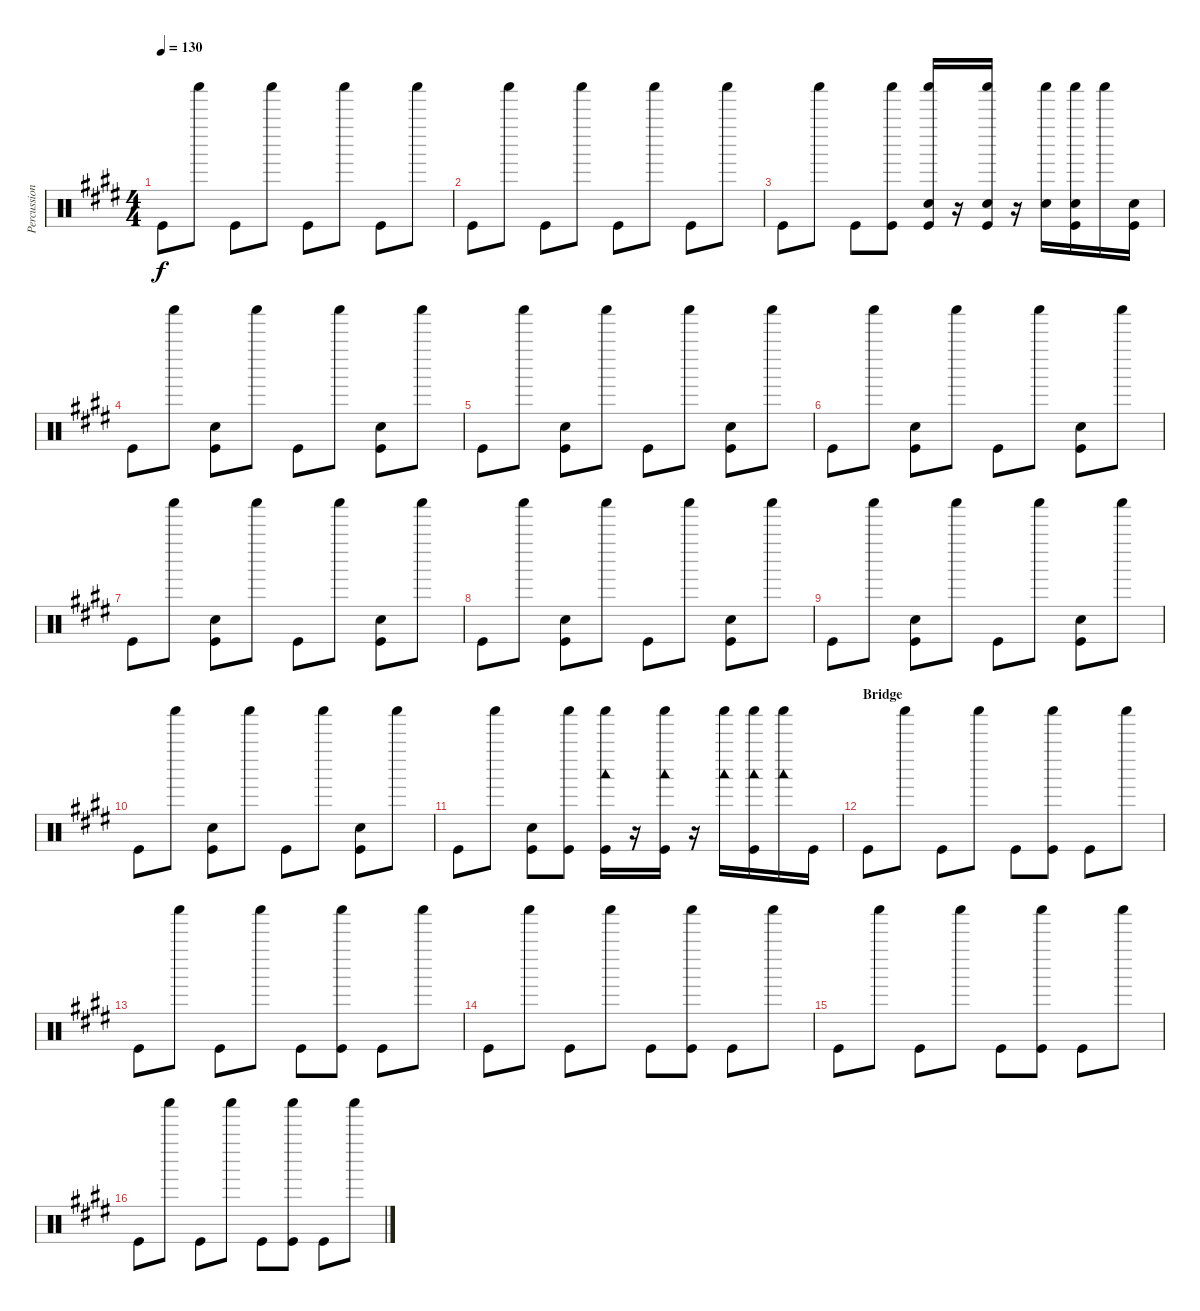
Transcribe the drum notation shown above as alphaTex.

\track ("Percussion" "Percussion") {instrument percussion}
\staff {score}
\articulation defaults
\ts (4 4)
\tempo 130
\clef neutral
\ks e "Kick (hit)".8{dy f} "Shaker (hit)".8 "Kick (hit)".8 "Shaker (hit)".8 "Kick (hit)".8 "Shaker (hit)".8 "Kick (hit)".8 "Shaker (hit)".8
|
"Kick (hit)".8 "Shaker (hit)".8 "Kick (hit)".8 "Shaker (hit)".8 "Kick (hit)".8 "Shaker (hit)".8 "Kick (hit)".8 "Shaker (hit)".8 |
"Kick (hit)".8 "Shaker (hit)".8 "Kick (hit)".8 ("Shaker (hit)" "Kick (hit)").8 ("Shaker (hit)" "Electric Snare (hit)" "Kick (hit)").16 r.16 ("Shaker (hit)" "Electric Snare (hit)" "Kick (hit)").16 r.16 ("Shaker (hit)" "Electric Snare (hit)").16 ("Shaker (hit)" "Electric Snare (hit)" "Kick (hit)").16 "Shaker (hit)".16 ("Electric Snare (hit)" "Kick (hit)").16 |
"Kick (hit)".8 "Shaker (hit)".8 ("Electric Snare (hit)" "Kick (hit)").8 "Shaker (hit)".8 "Kick (hit)".8 "Shaker (hit)".8 ("Electric Snare (hit)" "Kick (hit)").8 "Shaker (hit)".8 |
"Kick (hit)".8 "Shaker (hit)".8 ("Electric Snare (hit)" "Kick (hit)").8 "Shaker (hit)".8 "Kick (hit)".8 "Shaker (hit)".8 ("Electric Snare (hit)" "Kick (hit)").8 "Shaker (hit)".8 |
"Kick (hit)".8 "Shaker (hit)".8 ("Electric Snare (hit)" "Kick (hit)").8 "Shaker (hit)".8 "Kick (hit)".8 "Shaker (hit)".8 ("Electric Snare (hit)" "Kick (hit)").8 "Shaker (hit)".8 |
"Kick (hit)".8 "Shaker (hit)".8 ("Electric Snare (hit)" "Kick (hit)").8 "Shaker (hit)".8 "Kick (hit)".8 "Shaker (hit)".8 ("Electric Snare (hit)" "Kick (hit)").8 "Shaker (hit)".8 |
"Kick (hit)".8 "Shaker (hit)".8 ("Electric Snare (hit)" "Kick (hit)").8 "Shaker (hit)".8 "Kick (hit)".8 "Shaker (hit)".8 ("Electric Snare (hit)" "Kick (hit)").8 "Shaker (hit)".8 |
"Kick (hit)".8 "Shaker (hit)".8 ("Electric Snare (hit)" "Kick (hit)").8 "Shaker (hit)".8 "Kick (hit)".8 "Shaker (hit)".8 ("Electric Snare (hit)" "Kick (hit)").8 "Shaker (hit)".8 |
"Kick (hit)".8 "Shaker (hit)".8 ("Electric Snare (hit)" "Kick (hit)").8 "Shaker (hit)".8 "Kick (hit)".8 "Shaker (hit)".8 ("Electric Snare (hit)" "Kick (hit)").8 "Shaker (hit)".8 |
"Kick (hit)".8 "Shaker (hit)".8 ("Electric Snare (hit)" "Kick (hit)").8 ("Shaker (hit)" "Kick (hit)").8 ("Woodblock low (hit)" "Shaker (hit)" "Kick (hit)").16 r.16 ("Woodblock low (hit)" "Shaker (hit)" "Kick (hit)").16 r.16 ("Woodblock low (hit)" "Shaker (hit)").16 ("Woodblock low (hit)" "Shaker (hit)" "Kick (hit)").16 ("Woodblock low (hit)" "Shaker (hit)").16 "Kick (hit)".16 |
\section ("" "Bridge")
"Kick (hit)".8 "Shaker (hit)".8 "Kick (hit)".8 "Shaker (hit)".8 "Kick (hit)".8 ("Shaker (hit)" "Kick (hit)").8 "Kick (hit)".8 "Shaker (hit)".8 |
"Kick (hit)".8 "Shaker (hit)".8 "Kick (hit)".8 "Shaker (hit)".8 "Kick (hit)".8 ("Shaker (hit)" "Kick (hit)").8 "Kick (hit)".8 "Shaker (hit)".8 |
"Kick (hit)".8 "Shaker (hit)".8 "Kick (hit)".8 "Shaker (hit)".8 "Kick (hit)".8 ("Shaker (hit)" "Kick (hit)").8 "Kick (hit)".8 "Shaker (hit)".8 |
"Kick (hit)".8 "Shaker (hit)".8 "Kick (hit)".8 "Shaker (hit)".8 "Kick (hit)".8 ("Shaker (hit)" "Kick (hit)").8 "Kick (hit)".8 "Shaker (hit)".8 |
"Kick (hit)".8 "Shaker (hit)".8 "Kick (hit)".8 "Shaker (hit)".8 "Kick (hit)".8 ("Shaker (hit)" "Kick (hit)").8 "Kick (hit)".8 "Shaker (hit)".8
